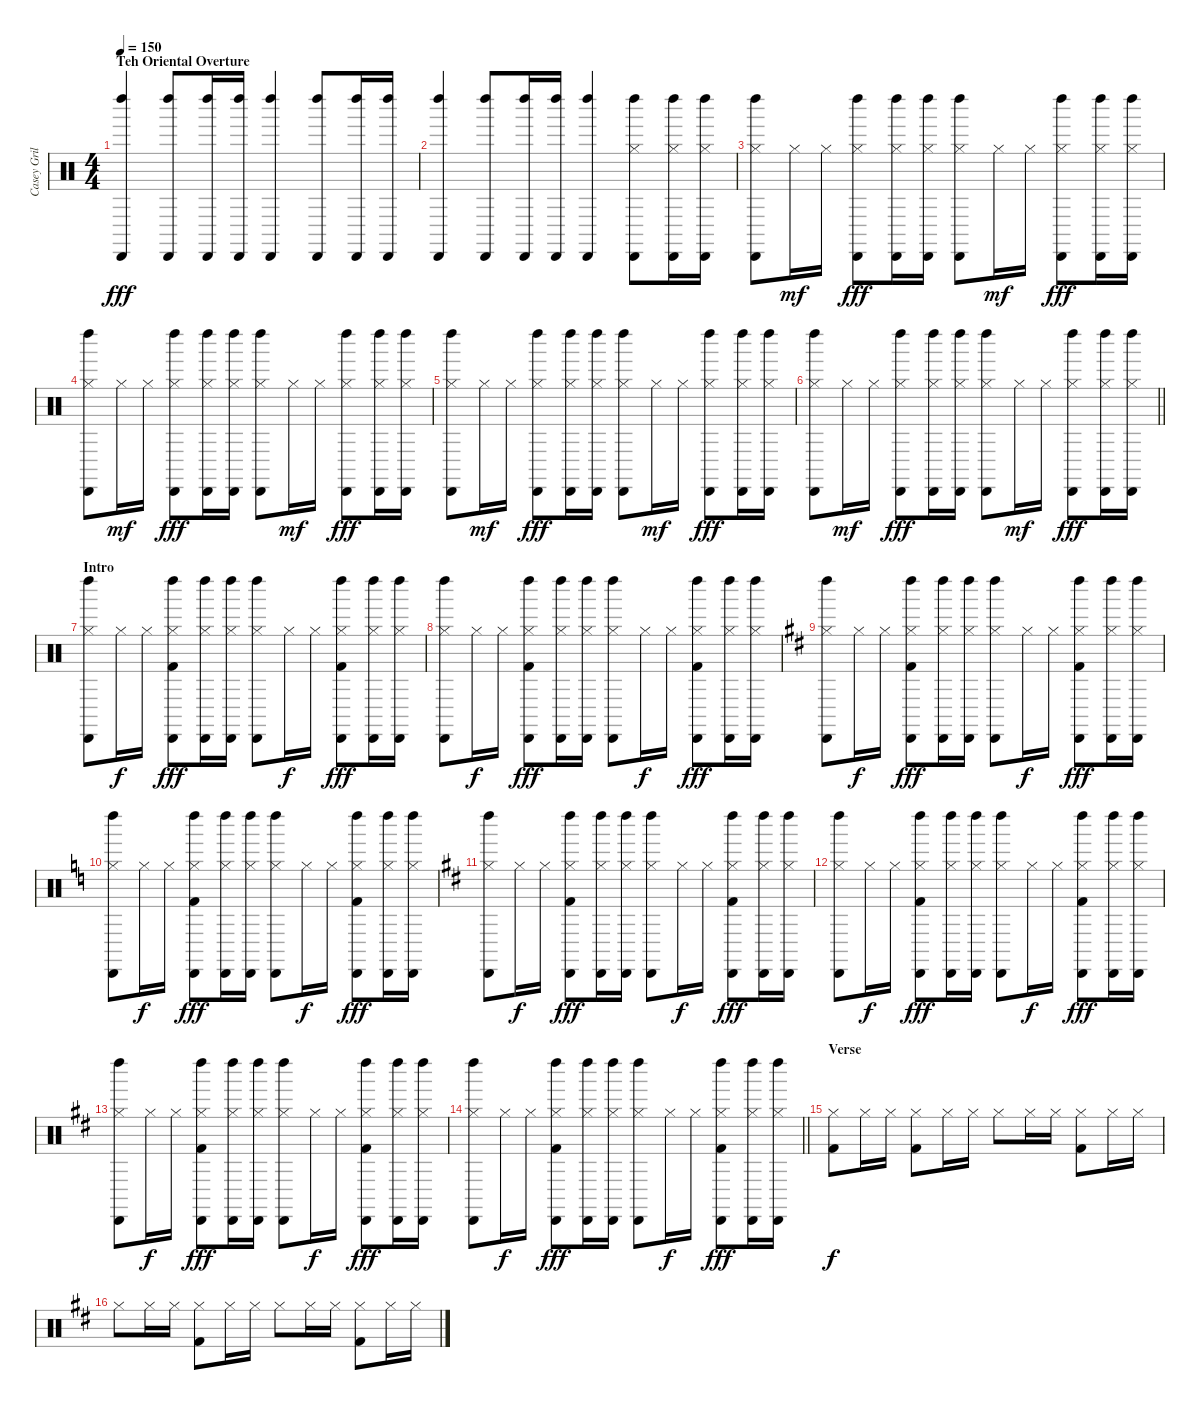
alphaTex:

\track ("Casey Grillo" "Casey Gril") {instrument percussion}
\staff {score}
\articulation defaults
\ts (4 4)
\section ("" "Teh Oriental Overture")
\tempo 150
\clef neutral
\ks c
("Left Maraca (hit)" "Cabasa (hit)").4{dy fff} ("Left Maraca (hit)" "Cabasa (hit)").8 ("Left Maraca (hit)" "Cabasa (hit)").16 ("Left Maraca (hit)" "Cabasa (hit)").16 ("Left Maraca (hit)" "Cabasa (hit)").4 ("Left Maraca (hit)" "Cabasa (hit)").8 ("Left Maraca (hit)" "Cabasa (hit)").16 ("Left Maraca (hit)" "Cabasa (hit)").16 |
("Left Maraca (hit)" "Cabasa (hit)").4 ("Left Maraca (hit)" "Cabasa (hit)").8 ("Left Maraca (hit)" "Cabasa (hit)").16 ("Left Maraca (hit)" "Cabasa (hit)").16 ("Left Maraca (hit)" "Cabasa (hit)").4 ("Hi-Hat (closed)" "Left Maraca (hit)" "Cabasa (hit)").8 ("Hi-Hat (closed)" "Left Maraca (hit)" "Cabasa (hit)").16 ("Hi-Hat (closed)" "Left Maraca (hit)" "Cabasa (hit)").16 |
("Hi-Hat (closed)" "Left Maraca (hit)" "Cabasa (hit)").8 "Hi-Hat (closed)".16{dy mf} "Hi-Hat (closed)".16 ("Hi-Hat (closed)" "Left Maraca (hit)" "Cabasa (hit)").8{dy fff} ("Hi-Hat (closed)" "Left Maraca (hit)" "Cabasa (hit)").16 ("Hi-Hat (closed)" "Left Maraca (hit)" "Cabasa (hit)").16 ("Hi-Hat (closed)" "Left Maraca (hit)" "Cabasa (hit)").8 "Hi-Hat (closed)".16{dy mf} "Hi-Hat (closed)".16 ("Hi-Hat (closed)" "Left Maraca (hit)" "Cabasa (hit)").8{dy fff} ("Hi-Hat (closed)" "Left Maraca (hit)" "Cabasa (hit)").16 ("Hi-Hat (closed)" "Left Maraca (hit)" "Cabasa (hit)").16 |
("Hi-Hat (closed)" "Left Maraca (hit)" "Cabasa (hit)").8 "Hi-Hat (closed)".16{dy mf} "Hi-Hat (closed)".16 ("Hi-Hat (closed)" "Left Maraca (hit)" "Cabasa (hit)").8{dy fff} ("Hi-Hat (closed)" "Left Maraca (hit)" "Cabasa (hit)").16 ("Hi-Hat (closed)" "Left Maraca (hit)" "Cabasa (hit)").16 ("Hi-Hat (closed)" "Left Maraca (hit)" "Cabasa (hit)").8 "Hi-Hat (closed)".16{dy mf} "Hi-Hat (closed)".16 ("Hi-Hat (closed)" "Left Maraca (hit)" "Cabasa (hit)").8{dy fff} ("Hi-Hat (closed)" "Left Maraca (hit)" "Cabasa (hit)").16 ("Hi-Hat (closed)" "Left Maraca (hit)" "Cabasa (hit)").16 |
("Hi-Hat (closed)" "Left Maraca (hit)" "Cabasa (hit)").8 "Hi-Hat (closed)".16{dy mf} "Hi-Hat (closed)".16 ("Hi-Hat (closed)" "Left Maraca (hit)" "Cabasa (hit)").8{dy fff} ("Hi-Hat (closed)" "Left Maraca (hit)" "Cabasa (hit)").16 ("Hi-Hat (closed)" "Left Maraca (hit)" "Cabasa (hit)").16 ("Hi-Hat (closed)" "Left Maraca (hit)" "Cabasa (hit)").8 "Hi-Hat (closed)".16{dy mf} "Hi-Hat (closed)".16 ("Hi-Hat (closed)" "Left Maraca (hit)" "Cabasa (hit)").8{dy fff} ("Hi-Hat (closed)" "Left Maraca (hit)" "Cabasa (hit)").16 ("Hi-Hat (closed)" "Left Maraca (hit)" "Cabasa (hit)").16 |
\barLineRight lightlight
("Hi-Hat (closed)" "Left Maraca (hit)" "Cabasa (hit)").8 "Hi-Hat (closed)".16{dy mf} "Hi-Hat (closed)".16 ("Hi-Hat (closed)" "Left Maraca (hit)" "Cabasa (hit)").8{dy fff} ("Hi-Hat (closed)" "Left Maraca (hit)" "Cabasa (hit)").16 ("Hi-Hat (closed)" "Left Maraca (hit)" "Cabasa (hit)").16 ("Hi-Hat (closed)" "Left Maraca (hit)" "Cabasa (hit)").8 "Hi-Hat (closed)".16{dy mf} "Hi-Hat (closed)".16 ("Hi-Hat (closed)" "Left Maraca (hit)" "Cabasa (hit)").8{dy fff} ("Hi-Hat (closed)" "Left Maraca (hit)" "Cabasa (hit)").16 ("Hi-Hat (closed)" "Left Maraca (hit)" "Cabasa (hit)").16 |
\section ("" "Intro")
("Hi-Hat (closed)" "Left Maraca (hit)" "Cabasa (hit)").8 "Hi-Hat (closed)".16{dy f} "Hi-Hat (closed)".16 ("Hi-Hat (closed)" "Left Maraca (hit)" "Cabasa (hit)" "Kick (hit) 2").8{dy fff} ("Hi-Hat (closed)" "Left Maraca (hit)" "Cabasa (hit)").16 ("Hi-Hat (closed)" "Left Maraca (hit)" "Cabasa (hit)").16 ("Hi-Hat (closed)" "Left Maraca (hit)" "Cabasa (hit)").8 "Hi-Hat (closed)".16{dy f} "Hi-Hat (closed)".16 ("Hi-Hat (closed)" "Left Maraca (hit)" "Cabasa (hit)" "Kick (hit) 2").8{dy fff} ("Hi-Hat (closed)" "Left Maraca (hit)" "Cabasa (hit)").16 ("Hi-Hat (closed)" "Left Maraca (hit)" "Cabasa (hit)").16 |
("Hi-Hat (closed)" "Left Maraca (hit)" "Cabasa (hit)").8 "Hi-Hat (closed)".16{dy f} "Hi-Hat (closed)".16 ("Hi-Hat (closed)" "Left Maraca (hit)" "Cabasa (hit)" "Kick (hit) 2").8{dy fff} ("Hi-Hat (closed)" "Left Maraca (hit)" "Cabasa (hit)").16 ("Hi-Hat (closed)" "Left Maraca (hit)" "Cabasa (hit)").16 ("Hi-Hat (closed)" "Left Maraca (hit)" "Cabasa (hit)").8 "Hi-Hat (closed)".16{dy f} "Hi-Hat (closed)".16 ("Hi-Hat (closed)" "Left Maraca (hit)" "Cabasa (hit)" "Kick (hit) 2").8{dy fff} ("Hi-Hat (closed)" "Left Maraca (hit)" "Cabasa (hit)").16 ("Hi-Hat (closed)" "Left Maraca (hit)" "Cabasa (hit)").16 |
\ks bminor
("Hi-Hat (closed)" "Left Maraca (hit)" "Cabasa (hit)").8 "Hi-Hat (closed)".16{dy f} "Hi-Hat (closed)".16 ("Hi-Hat (closed)" "Left Maraca (hit)" "Cabasa (hit)" "Kick (hit) 2").8{dy fff} ("Hi-Hat (closed)" "Left Maraca (hit)" "Cabasa (hit)").16 ("Hi-Hat (closed)" "Left Maraca (hit)" "Cabasa (hit)").16 ("Hi-Hat (closed)" "Left Maraca (hit)" "Cabasa (hit)").8 "Hi-Hat (closed)".16{dy f} "Hi-Hat (closed)".16 ("Hi-Hat (closed)" "Left Maraca (hit)" "Cabasa (hit)" "Kick (hit) 2").8{dy fff} ("Hi-Hat (closed)" "Left Maraca (hit)" "Cabasa (hit)").16 ("Hi-Hat (closed)" "Left Maraca (hit)" "Cabasa (hit)").16 |
\ks c
("Hi-Hat (closed)" "Left Maraca (hit)" "Cabasa (hit)").8 "Hi-Hat (closed)".16{dy f} "Hi-Hat (closed)".16 ("Hi-Hat (closed)" "Left Maraca (hit)" "Cabasa (hit)" "Kick (hit) 2").8{dy fff} ("Hi-Hat (closed)" "Left Maraca (hit)" "Cabasa (hit)").16 ("Hi-Hat (closed)" "Left Maraca (hit)" "Cabasa (hit)").16 ("Hi-Hat (closed)" "Left Maraca (hit)" "Cabasa (hit)").8 "Hi-Hat (closed)".16{dy f} "Hi-Hat (closed)".16 ("Hi-Hat (closed)" "Left Maraca (hit)" "Cabasa (hit)" "Kick (hit) 2").8{dy fff} ("Hi-Hat (closed)" "Left Maraca (hit)" "Cabasa (hit)").16 ("Hi-Hat (closed)" "Left Maraca (hit)" "Cabasa (hit)").16 |
\ks bminor
("Hi-Hat (closed)" "Left Maraca (hit)" "Cabasa (hit)").8 "Hi-Hat (closed)".16{dy f} "Hi-Hat (closed)".16 ("Hi-Hat (closed)" "Left Maraca (hit)" "Cabasa (hit)" "Kick (hit) 2").8{dy fff} ("Hi-Hat (closed)" "Left Maraca (hit)" "Cabasa (hit)").16 ("Hi-Hat (closed)" "Left Maraca (hit)" "Cabasa (hit)").16 ("Hi-Hat (closed)" "Left Maraca (hit)" "Cabasa (hit)").8 "Hi-Hat (closed)".16{dy f} "Hi-Hat (closed)".16 ("Hi-Hat (closed)" "Left Maraca (hit)" "Cabasa (hit)" "Kick (hit) 2").8{dy fff} ("Hi-Hat (closed)" "Left Maraca (hit)" "Cabasa (hit)").16 ("Hi-Hat (closed)" "Left Maraca (hit)" "Cabasa (hit)").16 |
("Hi-Hat (closed)" "Left Maraca (hit)" "Cabasa (hit)").8 "Hi-Hat (closed)".16{dy f} "Hi-Hat (closed)".16 ("Hi-Hat (closed)" "Left Maraca (hit)" "Cabasa (hit)" "Kick (hit) 2").8{dy fff} ("Hi-Hat (closed)" "Left Maraca (hit)" "Cabasa (hit)").16 ("Hi-Hat (closed)" "Left Maraca (hit)" "Cabasa (hit)").16 ("Hi-Hat (closed)" "Left Maraca (hit)" "Cabasa (hit)").8 "Hi-Hat (closed)".16{dy f} "Hi-Hat (closed)".16 ("Hi-Hat (closed)" "Left Maraca (hit)" "Cabasa (hit)" "Kick (hit) 2").8{dy fff} ("Hi-Hat (closed)" "Left Maraca (hit)" "Cabasa (hit)").16 ("Hi-Hat (closed)" "Left Maraca (hit)" "Cabasa (hit)").16 |
("Hi-Hat (closed)" "Left Maraca (hit)" "Cabasa (hit)").8 "Hi-Hat (closed)".16{dy f} "Hi-Hat (closed)".16 ("Hi-Hat (closed)" "Left Maraca (hit)" "Cabasa (hit)" "Kick (hit) 2").8{dy fff} ("Hi-Hat (closed)" "Left Maraca (hit)" "Cabasa (hit)").16 ("Hi-Hat (closed)" "Left Maraca (hit)" "Cabasa (hit)").16 ("Hi-Hat (closed)" "Left Maraca (hit)" "Cabasa (hit)").8 "Hi-Hat (closed)".16{dy f} "Hi-Hat (closed)".16 ("Hi-Hat (closed)" "Left Maraca (hit)" "Cabasa (hit)" "Kick (hit) 2").8{dy fff} ("Hi-Hat (closed)" "Left Maraca (hit)" "Cabasa (hit)").16 ("Hi-Hat (closed)" "Left Maraca (hit)" "Cabasa (hit)").16 |
\barLineRight lightlight
("Hi-Hat (closed)" "Left Maraca (hit)" "Cabasa (hit)").8 "Hi-Hat (closed)".16{dy f} "Hi-Hat (closed)".16 ("Hi-Hat (closed)" "Left Maraca (hit)" "Cabasa (hit)" "Kick (hit) 2").8{dy fff} ("Hi-Hat (closed)" "Left Maraca (hit)" "Cabasa (hit)").16 ("Hi-Hat (closed)" "Left Maraca (hit)" "Cabasa (hit)").16 ("Hi-Hat (closed)" "Left Maraca (hit)" "Cabasa (hit)").8 "Hi-Hat (closed)".16{dy f} "Hi-Hat (closed)".16 ("Hi-Hat (closed)" "Left Maraca (hit)" "Cabasa (hit)" "Kick (hit) 2").8{dy fff} ("Hi-Hat (closed)" "Left Maraca (hit)" "Cabasa (hit)").16 ("Hi-Hat (closed)" "Left Maraca (hit)" "Cabasa (hit)").16 |
\section ("" "Verse")
("Hi-Hat (closed)" "Kick (hit) 2").8{dy f} "Hi-Hat (closed)".16 "Hi-Hat (closed)".16 ("Hi-Hat (closed)" "Kick (hit) 2").8 "Hi-Hat (closed)".16 "Hi-Hat (closed)".16 "Hi-Hat (closed)".8 "Hi-Hat (closed)".16 "Hi-Hat (closed)".16 ("Hi-Hat (closed)" "Kick (hit) 2").8 "Hi-Hat (closed)".16 "Hi-Hat (closed)".16 |
"Hi-Hat (closed)".8 "Hi-Hat (closed)".16 "Hi-Hat (closed)".16 ("Hi-Hat (closed)" "Kick (hit) 2").8 "Hi-Hat (closed)".16 "Hi-Hat (closed)".16 "Hi-Hat (closed)".8 "Hi-Hat (closed)".16 "Hi-Hat (closed)".16 ("Hi-Hat (closed)" "Kick (hit) 2").8 "Hi-Hat (closed)".16 "Hi-Hat (closed)".16
